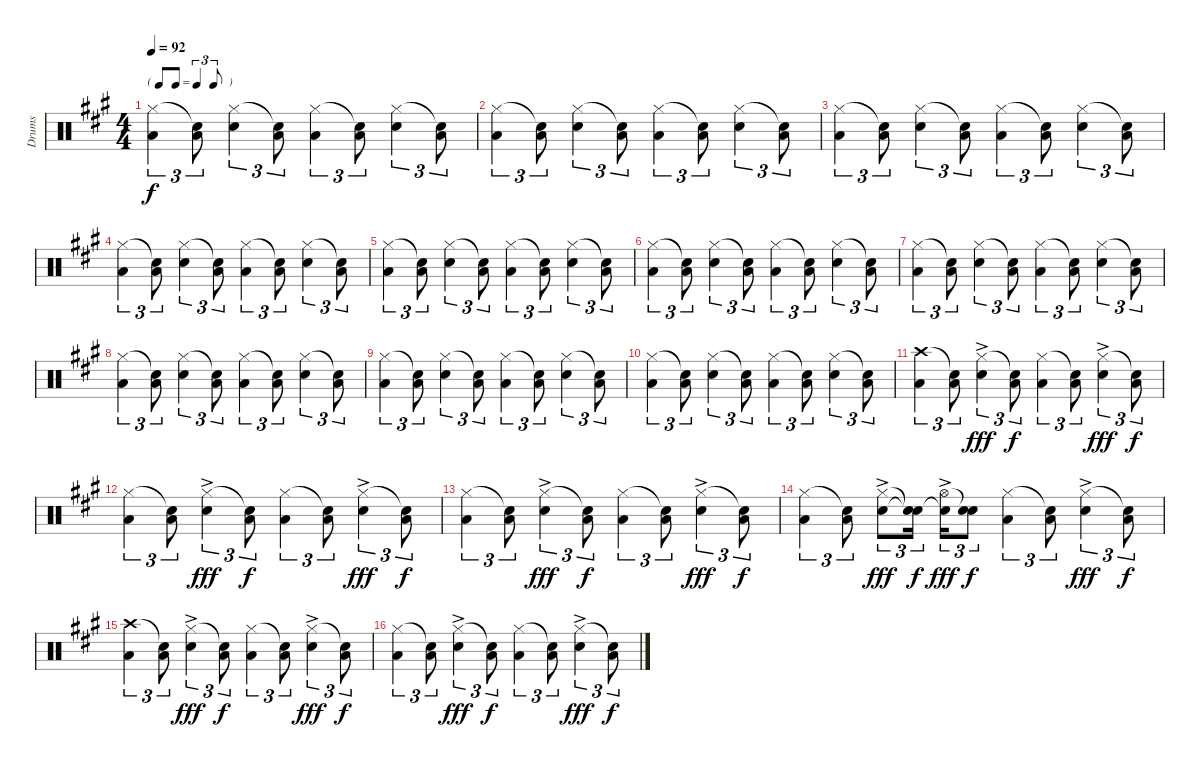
\track ("Drums" "Drums") {instrument percussion}
\staff {score}
\articulation defaults
\ts (4 4)
\tf triplet8th
\tempo 92
\clef neutral
\ks f#minor
("Hi-Hat (closed)" "Low Tom (hit)").4{tu (3 2) dy f} ("Snare (hit)"{t} "Low Tom (hit)").8{tu (3 2)} ("Hi-Hat (closed)" "Snare (hit) 2").4{tu (3 2)} ("Snare (hit)"{t} "Low Tom (hit)").8{tu (3 2)} ("Hi-Hat (closed)" "Low Tom (hit)").4{tu (3 2)} ("Snare (hit)"{t} "Low Tom (hit)").8{tu (3 2)} ("Hi-Hat (closed)" "Snare (hit) 2").4{tu (3 2)} ("Snare (hit)"{t} "Low Tom (hit)").8{tu (3 2)} |
("Hi-Hat (closed)" "Low Tom (hit)").4{tu (3 2)} ("Snare (hit)"{t} "Low Tom (hit)").8{tu (3 2)} ("Hi-Hat (closed)" "Snare (hit) 2").4{tu (3 2)} ("Snare (hit)"{t} "Low Tom (hit)").8{tu (3 2)} ("Hi-Hat (closed)" "Low Tom (hit)").4{tu (3 2)} ("Snare (hit)"{t} "Low Tom (hit)").8{tu (3 2)} ("Hi-Hat (closed)" "Snare (hit) 2").4{tu (3 2)} ("Snare (hit)"{t} "Low Tom (hit)").8{tu (3 2)} |
("Hi-Hat (closed)" "Low Tom (hit)").4{tu (3 2)} ("Snare (hit)"{t} "Low Tom (hit)").8{tu (3 2)} ("Hi-Hat (closed)" "Snare (hit) 2").4{tu (3 2)} ("Snare (hit)"{t} "Low Tom (hit)").8{tu (3 2)} ("Hi-Hat (closed)" "Low Tom (hit)").4{tu (3 2)} ("Snare (hit)"{t} "Low Tom (hit)").8{tu (3 2)} ("Hi-Hat (closed)" "Snare (hit) 2").4{tu (3 2)} ("Snare (hit)"{t} "Low Tom (hit)").8{tu (3 2)} |
("Hi-Hat (closed)" "Low Tom (hit)").4{tu (3 2)} ("Snare (hit)"{t} "Low Tom (hit)").8{tu (3 2)} ("Hi-Hat (closed)" "Snare (hit) 2").4{tu (3 2)} ("Snare (hit)"{t} "Low Tom (hit)").8{tu (3 2)} ("Hi-Hat (closed)" "Low Tom (hit)").4{tu (3 2)} ("Snare (hit)"{t} "Low Tom (hit)").8{tu (3 2)} ("Hi-Hat (closed)" "Snare (hit) 2").4{tu (3 2)} ("Snare (hit)"{t} "Low Tom (hit)").8{tu (3 2)} |
("Hi-Hat (closed)" "Low Tom (hit)").4{tu (3 2)} ("Snare (hit)"{t} "Low Tom (hit)").8{tu (3 2)} ("Hi-Hat (closed)" "Snare (hit) 2").4{tu (3 2)} ("Snare (hit)"{t} "Low Tom (hit)").8{tu (3 2)} ("Hi-Hat (closed)" "Low Tom (hit)").4{tu (3 2)} ("Snare (hit)"{t} "Low Tom (hit)").8{tu (3 2)} ("Hi-Hat (closed)" "Snare (hit) 2").4{tu (3 2)} ("Snare (hit)"{t} "Low Tom (hit)").8{tu (3 2)} |
("Hi-Hat (closed)" "Low Tom (hit)").4{tu (3 2)} ("Snare (hit)"{t} "Low Tom (hit)").8{tu (3 2)} ("Hi-Hat (closed)" "Snare (hit) 2").4{tu (3 2)} ("Snare (hit)"{t} "Low Tom (hit)").8{tu (3 2)} ("Hi-Hat (closed)" "Low Tom (hit)").4{tu (3 2)} ("Snare (hit)"{t} "Low Tom (hit)").8{tu (3 2)} ("Hi-Hat (closed)" "Snare (hit) 2").4{tu (3 2)} ("Snare (hit)"{t} "Low Tom (hit)").8{tu (3 2)} |
("Hi-Hat (closed)" "Low Tom (hit)").4{tu (3 2)} ("Snare (hit)"{t} "Low Tom (hit)").8{tu (3 2)} ("Hi-Hat (closed)" "Snare (hit) 2").4{tu (3 2)} ("Snare (hit)"{t} "Low Tom (hit)").8{tu (3 2)} ("Hi-Hat (closed)" "Low Tom (hit)").4{tu (3 2)} ("Snare (hit)"{t} "Low Tom (hit)").8{tu (3 2)} ("Hi-Hat (closed)" "Snare (hit) 2").4{tu (3 2)} ("Snare (hit)"{t} "Low Tom (hit)").8{tu (3 2)} |
("Hi-Hat (closed)" "Low Tom (hit)").4{tu (3 2)} ("Snare (hit)"{t} "Low Tom (hit)").8{tu (3 2)} ("Hi-Hat (closed)" "Snare (hit) 2").4{tu (3 2)} ("Snare (hit)"{t} "Low Tom (hit)").8{tu (3 2)} ("Hi-Hat (closed)" "Low Tom (hit)").4{tu (3 2)} ("Snare (hit)"{t} "Low Tom (hit)").8{tu (3 2)} ("Hi-Hat (closed)" "Snare (hit) 2").4{tu (3 2)} ("Snare (hit)"{t} "Low Tom (hit)").8{tu (3 2)} |
("Hi-Hat (closed)" "Low Tom (hit)").4{tu (3 2)} ("Snare (hit)"{t} "Low Tom (hit)").8{tu (3 2)} ("Hi-Hat (closed)" "Snare (hit) 2").4{tu (3 2)} ("Snare (hit)"{t} "Low Tom (hit)").8{tu (3 2)} ("Hi-Hat (closed)" "Low Tom (hit)").4{tu (3 2)} ("Snare (hit)"{t} "Low Tom (hit)").8{tu (3 2)} ("Hi-Hat (closed)" "Snare (hit) 2").4{tu (3 2)} ("Snare (hit)"{t} "Low Tom (hit)").8{tu (3 2)} |
("Hi-Hat (closed)" "Low Tom (hit)").4{tu (3 2)} ("Snare (hit)"{t} "Low Tom (hit)").8{tu (3 2)} ("Hi-Hat (closed)" "Snare (hit) 2").4{tu (3 2)} ("Snare (hit)"{t} "Low Tom (hit)").8{tu (3 2)} ("Hi-Hat (closed)" "Low Tom (hit)").4{tu (3 2)} ("Snare (hit)"{t} "Low Tom (hit)").8{tu (3 2)} ("Hi-Hat (closed)" "Snare (hit) 2").4{tu (3 2)} ("Snare (hit)"{t} "Low Tom (hit)").8{tu (3 2)} |
("Crash high (hit)" "Low Tom (hit)").4{tu (3 2)} ("Snare (hit)"{t} "Low Tom (hit)").8{tu (3 2)} ("Hi-Hat (closed)"{ac} "Snare (hit) 2").4{tu (3 2) dy fff} ("Snare (hit)"{t} "Low Tom (hit)").8{tu (3 2) dy f} ("Hi-Hat (closed)" "Low Tom (hit)").4{tu (3 2)} ("Snare (hit)"{t} "Low Tom (hit)").8{tu (3 2)} ("Hi-Hat (closed)"{ac} "Snare (hit) 2").4{tu (3 2) dy fff} ("Snare (hit)"{t} "Low Tom (hit)").8{tu (3 2) dy f} |
("Hi-Hat (closed)" "Low Tom (hit)").4{tu (3 2)} ("Snare (hit)"{t} "Low Tom (hit)").8{tu (3 2)} ("Hi-Hat (closed)"{ac} "Snare (hit) 2").4{tu (3 2) dy fff} ("Snare (hit)"{t} "Low Tom (hit)").8{tu (3 2) dy f} ("Hi-Hat (closed)" "Low Tom (hit)").4{tu (3 2)} ("Snare (hit)"{t} "Low Tom (hit)").8{tu (3 2)} ("Hi-Hat (closed)"{ac} "Snare (hit) 2").4{tu (3 2) dy fff} ("Snare (hit)"{t} "Low Tom (hit)").8{tu (3 2) dy f} |
("Hi-Hat (closed)" "Low Tom (hit)").4{tu (3 2)} ("Snare (hit)"{t} "Low Tom (hit)").8{tu (3 2)} ("Hi-Hat (closed)"{ac} "Snare (hit) 2").4{tu (3 2) dy fff} ("Snare (hit)"{t} "Low Tom (hit)").8{tu (3 2) dy f} ("Hi-Hat (closed)" "Low Tom (hit)").4{tu (3 2)} ("Snare (hit)"{t} "Low Tom (hit)").8{tu (3 2)} ("Hi-Hat (closed)"{ac} "Snare (hit) 2").4{tu (3 2) dy fff} ("Snare (hit)"{t} "Low Tom (hit)").8{tu (3 2) dy f} |
("Hi-Hat (closed)" "Low Tom (hit)").4{tu (3 2)} ("Snare (hit)"{t} "Low Tom (hit)").8{tu (3 2)} ("Hi-Hat (closed)"{ac} "Snare (hit) 2").8{tu (3 2) dy fff} ("Snare (hit)"{t} "Snare (hit)"{t}).16{tu (3 2) dy f} ("Hi-Hat (open)"{ac} "Snare (hit)"{t}).16{tu (3 2) dy fff} ("Snare (hit)"{t} "Snare (hit) 2").8{tu (3 2) dy f} ("Hi-Hat (closed)" "Low Tom (hit)").4{tu (3 2)} ("Snare (hit)"{t} "Low Tom (hit)").8{tu (3 2)} ("Hi-Hat (closed)"{ac} "Snare (hit) 2").4{tu (3 2) dy fff} ("Snare (hit)"{t} "Low Tom (hit)").8{tu (3 2) dy f} |
("Crash high (hit)" "Low Tom (hit)").4{tu (3 2)} ("Snare (hit)"{t} "Low Tom (hit)").8{tu (3 2)} ("Hi-Hat (closed)"{ac} "Snare (hit) 2").4{tu (3 2) dy fff} ("Snare (hit)"{t} "Low Tom (hit)").8{tu (3 2) dy f} ("Hi-Hat (closed)" "Low Tom (hit)").4{tu (3 2)} ("Snare (hit)"{t} "Low Tom (hit)").8{tu (3 2)} ("Hi-Hat (closed)"{ac} "Snare (hit) 2").4{tu (3 2) dy fff} ("Snare (hit)"{t} "Low Tom (hit)").8{tu (3 2) dy f} |
("Hi-Hat (closed)" "Low Tom (hit)").4{tu (3 2)} ("Snare (hit)"{t} "Low Tom (hit)").8{tu (3 2)} ("Hi-Hat (closed)"{ac} "Snare (hit) 2").4{tu (3 2) dy fff} ("Snare (hit)"{t} "Low Tom (hit)").8{tu (3 2) dy f} ("Hi-Hat (closed)" "Low Tom (hit)").4{tu (3 2)} ("Snare (hit)"{t} "Low Tom (hit)").8{tu (3 2)} ("Hi-Hat (closed)"{ac} "Snare (hit) 2").4{tu (3 2) dy fff} ("Snare (hit)"{t} "Low Tom (hit)").8{tu (3 2) dy f}
